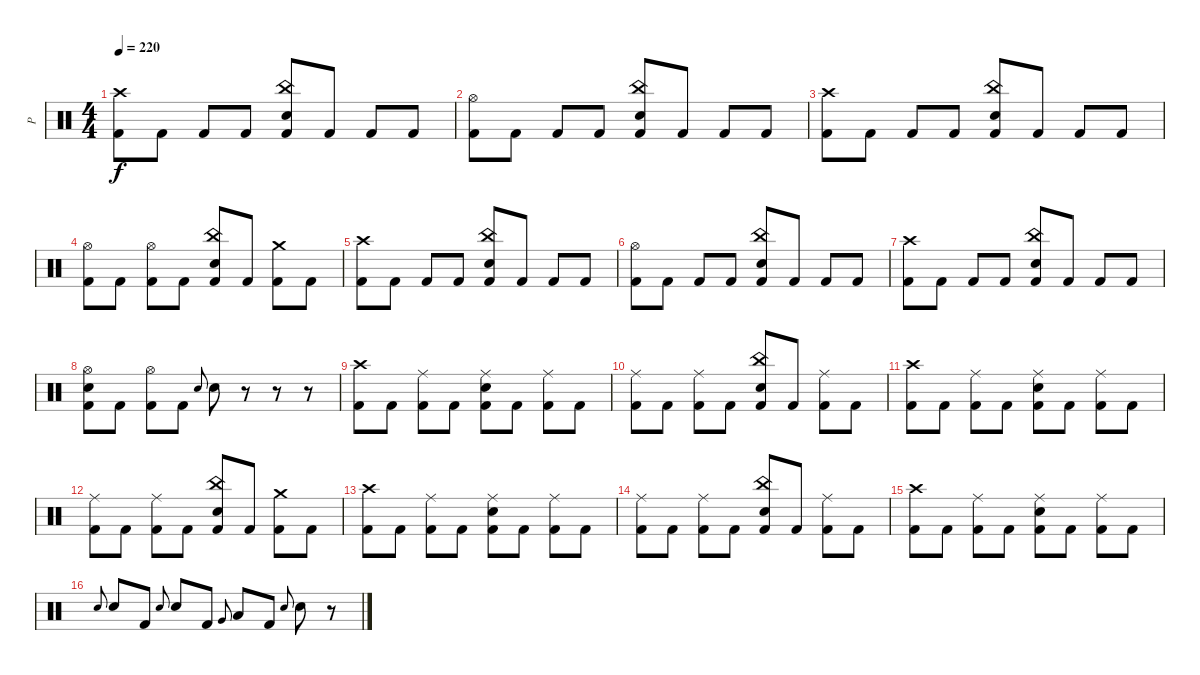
\track ("P" "P") {instrument percussion}
\staff {score}
\articulation defaults
\ts (4 4)
\tempo 220
\clef neutral
\ks c
("Crash high (hit)" "Kick (hit) 2").8{dy f} "Kick (hit) 2".8 "Kick (hit) 2".8 "Kick (hit) 2".8 ("China (hit)" "Electric Snare (hit)" "Kick (hit) 2").8 "Kick (hit) 2".8 "Kick (hit) 2".8 "Kick (hit) 2".8 |
("Hi-Hat (open)" "Kick (hit) 2").8 "Kick (hit) 2".8 "Kick (hit) 2".8 "Kick (hit) 2".8 ("China (hit)" "Electric Snare (hit)" "Kick (hit) 2").8 "Kick (hit) 2".8 "Kick (hit) 2".8 "Kick (hit) 2".8 |
("Crash high (hit)" "Kick (hit) 2").8 "Kick (hit) 2".8 "Kick (hit) 2".8 "Kick (hit) 2".8 ("China (hit)" "Electric Snare (hit)" "Kick (hit) 2").8 "Kick (hit) 2".8 "Kick (hit) 2".8 "Kick (hit) 2".8 |
("Hi-Hat (open)" "Kick (hit) 2").8 "Kick (hit) 2".8 ("Hi-Hat (open)" "Kick (hit) 2").8 "Kick (hit) 2".8 ("China (hit)" "Electric Snare (hit)" "Kick (hit) 2").8 "Kick (hit) 2".8 ("Crash medium (hit)" "Kick (hit) 2").8 "Kick (hit) 2".8 |
("Crash high (hit)" "Kick (hit) 2").8 "Kick (hit) 2".8 "Kick (hit) 2".8 "Kick (hit) 2".8 ("China (hit)" "Electric Snare (hit)" "Kick (hit) 2").8 "Kick (hit) 2".8 "Kick (hit) 2".8 "Kick (hit) 2".8 |
("Hi-Hat (open)" "Kick (hit) 2").8 "Kick (hit) 2".8 "Kick (hit) 2".8 "Kick (hit) 2".8 ("China (hit)" "Electric Snare (hit)" "Kick (hit) 2").8 "Kick (hit) 2".8 "Kick (hit) 2".8 "Kick (hit) 2".8 |
("Crash high (hit)" "Kick (hit) 2").8 "Kick (hit) 2".8 "Kick (hit) 2".8 "Kick (hit) 2".8 ("China (hit)" "Electric Snare (hit)" "Kick (hit) 2").8 "Kick (hit) 2".8 "Kick (hit) 2".8 "Kick (hit) 2".8 |
("Hi-Hat (open)" "Electric Snare (hit)" "Kick (hit) 2").8 "Kick (hit) 2".8 ("Hi-Hat (open)" "Kick (hit) 2").8 "Kick (hit) 2".8 "Electric Snare (hit)".8{gr onbeat} "Electric Snare (hit)".8 r.8 r.8 r.8 |
("Crash high (hit)" "Kick (hit) 2").8 "Kick (hit) 2".8 ("Ride (middle)" "Kick (hit) 2").8 "Kick (hit) 2".8 ("Ride (middle)" "Electric Snare (hit)" "Kick (hit) 2").8 "Kick (hit) 2".8 ("Ride (middle)" "Kick (hit) 2").8 "Kick (hit) 2".8 |
("Ride (middle)" "Kick (hit) 2").8 "Kick (hit) 2".8 ("Ride (middle)" "Kick (hit) 2").8 "Kick (hit) 2".8 ("China (hit)" "Electric Snare (hit)" "Kick (hit) 2").8 "Kick (hit) 2".8 ("Ride (middle)" "Kick (hit) 2").8 "Kick (hit) 2".8 |
("Crash high (hit)" "Kick (hit) 2").8 "Kick (hit) 2".8 ("Ride (middle)" "Kick (hit) 2").8 "Kick (hit) 2".8 ("Ride (middle)" "Electric Snare (hit)" "Kick (hit) 2").8 "Kick (hit) 2".8 ("Ride (middle)" "Kick (hit) 2").8 "Kick (hit) 2".8 |
("Ride (middle)" "Kick (hit) 2").8 "Kick (hit) 2".8 ("Ride (middle)" "Kick (hit) 2").8 "Kick (hit) 2".8 ("China (hit)" "Electric Snare (hit)" "Kick (hit) 2").8 "Kick (hit) 2".8 ("Crash medium (hit)" "Kick (hit) 2").8 "Kick (hit) 2".8 |
("Crash high (hit)" "Kick (hit) 2").8 "Kick (hit) 2".8 ("Ride (middle)" "Kick (hit) 2").8 "Kick (hit) 2".8 ("Ride (middle)" "Electric Snare (hit)" "Kick (hit) 2").8 "Kick (hit) 2".8 ("Ride (middle)" "Kick (hit) 2").8 "Kick (hit) 2".8 |
("Ride (middle)" "Kick (hit) 2").8 "Kick (hit) 2".8 ("Ride (middle)" "Kick (hit) 2").8 "Kick (hit) 2".8 ("China (hit)" "Electric Snare (hit)" "Kick (hit) 2").8 "Kick (hit) 2".8 ("Ride (middle)" "Kick (hit) 2").8 "Kick (hit) 2".8 |
("Crash high (hit)" "Kick (hit) 2").8 "Kick (hit) 2".8 ("Ride (middle)" "Kick (hit) 2").8 "Kick (hit) 2".8 ("Ride (middle)" "Electric Snare (hit)" "Kick (hit) 2").8 "Kick (hit) 2".8 ("Ride (middle)" "Kick (hit) 2").8 "Kick (hit) 2".8 |
"Electric Snare (hit)".8{gr onbeat} "Electric Snare (hit)".8 "Kick (hit) 2".8 "Electric Snare (hit)".8{gr onbeat} "Electric Snare (hit)".8 "Kick (hit) 2".8 "Very Low Tom (hit)".8{gr onbeat} "Low Tom (hit)".8 "Kick (hit) 2".8 "Electric Snare (hit)".8{gr onbeat} "Electric Snare (hit)".8 r.8
